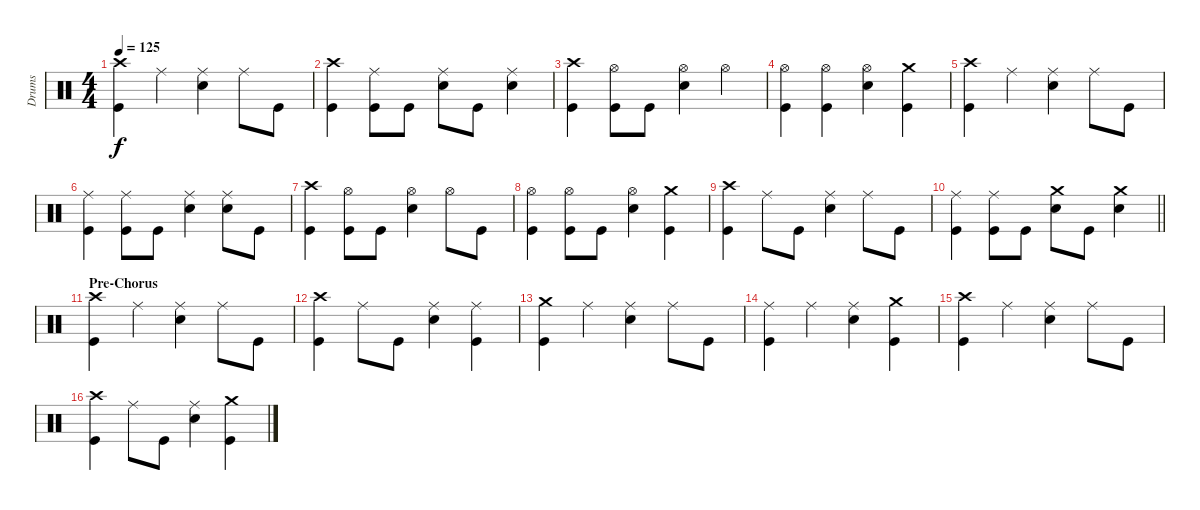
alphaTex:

\track ("Drums" "Drums") {instrument percussion}
\staff {score}
\articulation defaults
\ts (4 4)
\tempo 125
\clef neutral
\ks c
("Crash high (hit)" "Kick (hit)").4{dy f} "Ride (middle)".4 ("Ride (middle)" "Snare (hit) 2").4 "Ride (middle)".8 "Kick (hit)".8 |
("Crash high (hit)" "Kick (hit)").4 ("Ride (middle)" "Kick (hit)").8 "Kick (hit)".8 ("Ride (middle)" "Snare (hit) 2").8 "Kick (hit)".8 ("Ride (middle)" "Snare (hit) 2").4 |
("Crash high (hit)" "Kick (hit)").4 ("Hi-Hat (open)" "Kick (hit)").8 "Kick (hit)".8 ("Hi-Hat (open)" "Snare (hit) 2").4 "Hi-Hat (open)".4 |
("Hi-Hat (open)" "Kick (hit)").4 ("Hi-Hat (open)" "Kick (hit)").4 ("Hi-Hat (open)" "Snare (hit) 2").4 ("Crash medium (hit)" "Kick (hit)").4 |
("Crash high (hit)" "Kick (hit)").4 "Ride (middle)".4 ("Ride (middle)" "Snare (hit) 2").4 "Ride (middle)".8 "Kick (hit)".8 |
("Ride (middle)" "Kick (hit)").4 ("Ride (middle)" "Kick (hit)").8 "Kick (hit)".8 ("Ride (middle)" "Snare (hit) 2").4 ("Ride (middle)" "Snare (hit) 2").8 "Kick (hit)".8 |
("Crash high (hit)" "Kick (hit)").4 ("Hi-Hat (open)" "Kick (hit)").8 "Kick (hit)".8 ("Hi-Hat (open)" "Snare (hit) 2").4 "Hi-Hat (open)".8 "Kick (hit)".8 |
("Hi-Hat (open)" "Kick (hit)").4 ("Hi-Hat (open)" "Kick (hit)").8 "Kick (hit)".8 ("Hi-Hat (open)" "Snare (hit) 2").4 ("Crash medium (hit)" "Kick (hit)").4 |
("Crash high (hit)" "Kick (hit)").4 "Ride (middle)".8 "Kick (hit)".8 ("Ride (middle)" "Snare (hit) 2").4 "Ride (middle)".8 "Kick (hit)".8 |
\barLineRight lightlight
("Ride (middle)" "Kick (hit)").4 ("Ride (middle)" "Kick (hit)").8 "Kick (hit)".8 ("Crash medium (hit)" "Snare (hit) 2").8 "Kick (hit)".8 ("Crash medium (hit)" "Snare (hit) 2").4 |
\section ("" "Pre-Chorus")
("Crash high (hit)" "Kick (hit)").4 "Ride (middle)".4 ("Ride (middle)" "Snare (hit) 2").4 "Ride (middle)".8 "Kick (hit)".8 |
("Crash high (hit)" "Kick (hit)").4 "Ride (middle)".8 "Kick (hit)".8 ("Ride (middle)" "Snare (hit) 2").4 ("Ride (middle)" "Kick (hit)").4 |
("Crash medium (hit)" "Kick (hit)").4 "Ride (middle)".4 ("Ride (middle)" "Snare (hit) 2").4 "Ride (middle)".8 "Kick (hit)".8 |
("Ride (middle)" "Kick (hit)").4 "Ride (middle)".4 ("Ride (middle)" "Snare (hit) 2").4 ("Crash medium (hit)" "Kick (hit)").4 |
("Crash high (hit)" "Kick (hit)").4 "Ride (middle)".4 ("Ride (middle)" "Snare (hit) 2").4 "Ride (middle)".8 "Kick (hit)".8 |
("Crash high (hit)" "Kick (hit)").4 "Ride (middle)".8 "Kick (hit)".8 ("Ride (middle)" "Snare (hit) 2").4 ("Crash medium (hit)" "Kick (hit)").4
